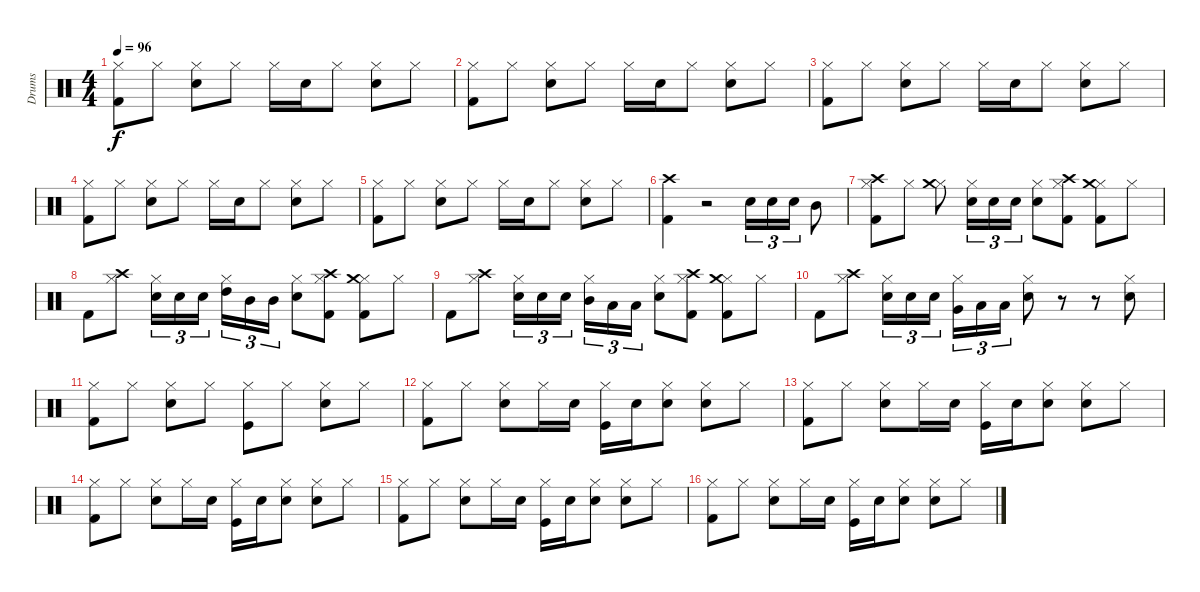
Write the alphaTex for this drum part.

\track ("Drums" "Drums") {instrument percussion}
\staff {score}
\articulation defaults
\ts (4 4)
\tempo 96
\clef neutral
\ks c
("Kick (hit) 2" "Hi-Hat (closed)").8{dy f} "Hi-Hat (closed)".8 ("Snare (hit) 2" "Hi-Hat (closed)").8 "Hi-Hat (closed)".8 "Hi-Hat (closed)".16 "Snare (hit) 2".16 "Hi-Hat (closed)".8 ("Snare (hit) 2" "Hi-Hat (closed)").8 "Hi-Hat (closed)".8 |
("Kick (hit) 2" "Hi-Hat (closed)").8 "Hi-Hat (closed)".8 ("Snare (hit) 2" "Hi-Hat (closed)").8 "Hi-Hat (closed)".8 "Hi-Hat (closed)".16 "Snare (hit) 2".16 "Hi-Hat (closed)".8 ("Snare (hit) 2" "Hi-Hat (closed)").8 "Hi-Hat (closed)".8 |
("Kick (hit) 2" "Hi-Hat (closed)").8 "Hi-Hat (closed)".8 ("Snare (hit) 2" "Hi-Hat (closed)").8 "Hi-Hat (closed)".8 "Hi-Hat (closed)".16 "Snare (hit) 2".16 "Hi-Hat (closed)".8 ("Snare (hit) 2" "Hi-Hat (closed)").8 "Hi-Hat (closed)".8 |
("Kick (hit) 2" "Hi-Hat (closed)").8 "Hi-Hat (closed)".8 ("Snare (hit) 2" "Hi-Hat (closed)").8 "Hi-Hat (closed)".8 "Hi-Hat (closed)".16 "Snare (hit) 2".16 "Hi-Hat (closed)".8 ("Snare (hit) 2" "Hi-Hat (closed)").8 "Hi-Hat (closed)".8 |
("Kick (hit) 2" "Hi-Hat (closed)").8 "Hi-Hat (closed)".8 ("Snare (hit) 2" "Hi-Hat (closed)").8 "Hi-Hat (closed)".8 "Hi-Hat (closed)".16 "Snare (hit) 2".16 "Hi-Hat (closed)".8 ("Snare (hit) 2" "Hi-Hat (closed)").8 "Hi-Hat (closed)".8 |
("Kick (hit) 2" "Crash high (hit)").4 r.2 "Snare (hit) 2".16{tu (3 2)} "Snare (hit) 2".16{tu (3 2)} "Snare (hit) 2".16{tu (3 2)} "Mid Tom (hit)".8 |
("Kick (hit) 2" "Hi-Hat (closed)" "Crash high (hit)").8 "Hi-Hat (closed)".8 ("Hi-Hat (closed)" "Crash medium (hit)").8 ("Snare (hit) 2" "Hi-Hat (closed)").16{tu (3 2)} "Snare (hit) 2".16{tu (3 2)} "Snare (hit) 2".16{tu (3 2)} ("Snare (hit) 2" "Hi-Hat (closed)").8 ("Kick (hit) 2" "Hi-Hat (closed)" "Crash high (hit)").8 ("Kick (hit) 2" "Hi-Hat (closed)" "Crash medium (hit)").8 "Hi-Hat (closed)".8 |
"Kick (hit) 2".8 ("Hi-Hat (closed)" "Crash high (hit)").8 ("Snare (hit) 2" "Hi-Hat (closed)").16{tu (3 2)} "Snare (hit) 2".16{tu (3 2)} "Snare (hit) 2".16{tu (3 2)} ("Hi-Hat (closed)" "High Tom (hit)").16{tu (3 2)} "Mid Tom (hit)".16{tu (3 2)} "Mid Tom (hit)".16{tu (3 2)} ("Snare (hit) 2" "Hi-Hat (closed)").8 ("Kick (hit) 2" "Hi-Hat (closed)" "Crash high (hit)").8 ("Kick (hit) 2" "Hi-Hat (closed)" "Crash medium (hit)").8 "Hi-Hat (closed)".8 |
"Kick (hit) 2".8 ("Hi-Hat (closed)" "Crash high (hit)").8 ("Snare (hit) 2" "Hi-Hat (closed)").16{tu (3 2)} "Snare (hit) 2".16{tu (3 2)} "Snare (hit) 2".16{tu (3 2)} ("Hi-Hat (closed)" "Mid Tom (hit)").16{tu (3 2)} "Low Tom (hit)".16{tu (3 2)} "Low Tom (hit)".16{tu (3 2)} ("Snare (hit) 2" "Hi-Hat (closed)").8 ("Kick (hit) 2" "Hi-Hat (closed)" "Crash high (hit)").8 ("Kick (hit) 2" "Hi-Hat (closed)" "Crash medium (hit)").8 "Hi-Hat (closed)".8 |
"Kick (hit) 2".8 ("Hi-Hat (closed)" "Crash high (hit)").8 ("Snare (hit) 2" "Hi-Hat (closed)").16{tu (3 2)} "Snare (hit) 2".16{tu (3 2)} "Snare (hit) 2".16{tu (3 2)} ("Hi-Hat (closed)" "Very Low Tom (hit)").16{tu (3 2)} "Low Floor Tom (hit)".16{tu (3 2)} "Low Floor Tom (hit)".16{tu (3 2)} ("Snare (hit) 2" "Hi-Hat (closed)").8 r.8 r.8 ("Snare (hit) 2" "Hi-Hat (closed)").8 |
("Kick (hit) 2" "Hi-Hat (closed)").8 "Hi-Hat (closed)".8 ("Snare (hit) 2" "Hi-Hat (closed)").8 "Hi-Hat (closed)".8 ("Kick (hit)" "Hi-Hat (closed)").8 "Hi-Hat (closed)".8 ("Snare (hit) 2" "Hi-Hat (closed)").8 "Hi-Hat (closed)".8 |
("Kick (hit) 2" "Hi-Hat (closed)").8 "Hi-Hat (closed)".8 ("Snare (hit) 2" "Hi-Hat (closed)").8 "Hi-Hat (closed)".16 "Snare (hit) 2".16 ("Kick (hit)" "Hi-Hat (closed)").16 "Snare (hit) 2".16 ("Snare (hit) 2" "Hi-Hat (closed)").8 ("Snare (hit) 2" "Hi-Hat (closed)").8 "Hi-Hat (closed)".8 |
("Kick (hit) 2" "Hi-Hat (closed)").8 "Hi-Hat (closed)".8 ("Snare (hit) 2" "Hi-Hat (closed)").8 "Hi-Hat (closed)".16 "Snare (hit) 2".16 ("Kick (hit)" "Hi-Hat (closed)").16 "Snare (hit) 2".16 ("Snare (hit) 2" "Hi-Hat (closed)").8 ("Snare (hit) 2" "Hi-Hat (closed)").8 "Hi-Hat (closed)".8 |
("Kick (hit) 2" "Hi-Hat (closed)").8 "Hi-Hat (closed)".8 ("Snare (hit) 2" "Hi-Hat (closed)").8 "Hi-Hat (closed)".16 "Snare (hit) 2".16 ("Kick (hit)" "Hi-Hat (closed)").16 "Snare (hit) 2".16 ("Snare (hit) 2" "Hi-Hat (closed)").8 ("Snare (hit) 2" "Hi-Hat (closed)").8 "Hi-Hat (closed)".8 |
("Kick (hit) 2" "Hi-Hat (closed)").8 "Hi-Hat (closed)".8 ("Snare (hit) 2" "Hi-Hat (closed)").8 "Hi-Hat (closed)".16 "Snare (hit) 2".16 ("Kick (hit)" "Hi-Hat (closed)").16 "Snare (hit) 2".16 ("Snare (hit) 2" "Hi-Hat (closed)").8 ("Snare (hit) 2" "Hi-Hat (closed)").8 "Hi-Hat (closed)".8 |
("Kick (hit) 2" "Hi-Hat (closed)").8 "Hi-Hat (closed)".8 ("Snare (hit) 2" "Hi-Hat (closed)").8 "Hi-Hat (closed)".16 "Snare (hit) 2".16 ("Kick (hit)" "Hi-Hat (closed)").16 "Snare (hit) 2".16 ("Snare (hit) 2" "Hi-Hat (closed)").8 ("Snare (hit) 2" "Hi-Hat (closed)").8 "Hi-Hat (closed)".8
